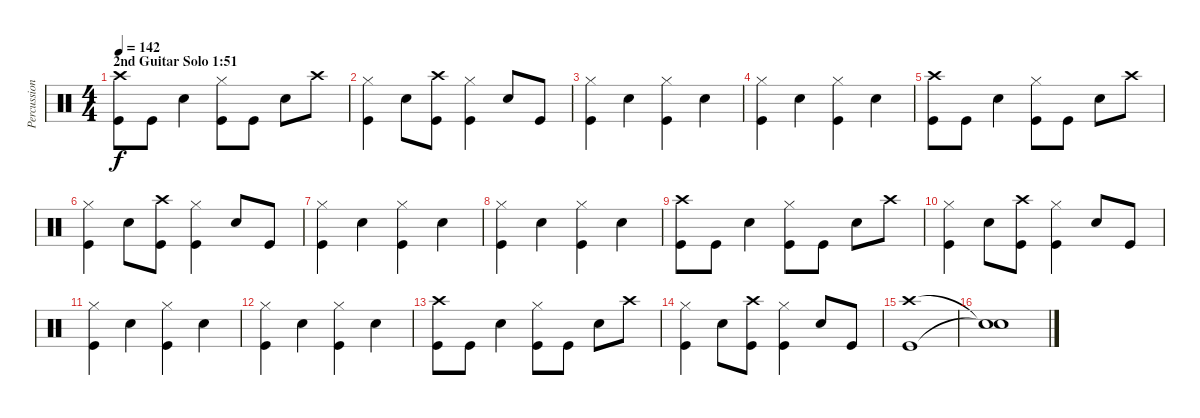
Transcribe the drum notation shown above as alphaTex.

\track ("Percussion" "Percussion") {instrument percussion}
\staff {score}
\articulation defaults
\ts (4 4)
\section ("" "2nd Guitar Solo 1:51")
\tempo 142
\clef neutral
\ks c
("Crash high (hit)" "Kick (hit)").8{dy f} "Kick (hit)".8 "Snare (hit) 2".4 ("Hi-Hat (closed)" "Kick (hit)").8 "Kick (hit)".8 "Snare (hit) 2".8 "Crash high (hit)".8 |
("Hi-Hat (closed)" "Kick (hit)").4 "Snare (hit) 2".8 ("Crash high (hit)" "Kick (hit)").8 ("Hi-Hat (closed)" "Kick (hit)").4 "Snare (hit) 2".8 "Kick (hit)".8 |
("Hi-Hat (closed)" "Kick (hit)").4 "Snare (hit) 2".4 ("Hi-Hat (closed)" "Kick (hit)").4 "Snare (hit) 2".4 |
("Hi-Hat (closed)" "Kick (hit)").4 "Snare (hit) 2".4 ("Hi-Hat (closed)" "Kick (hit)").4 "Snare (hit) 2".4 |
("Crash high (hit)" "Kick (hit)").8 "Kick (hit)".8 "Snare (hit) 2".4 ("Hi-Hat (closed)" "Kick (hit)").8 "Kick (hit)".8 "Snare (hit) 2".8 "Crash high (hit)".8 |
("Hi-Hat (closed)" "Kick (hit)").4 "Snare (hit) 2".8 ("Crash high (hit)" "Kick (hit)").8 ("Hi-Hat (closed)" "Kick (hit)").4 "Snare (hit) 2".8 "Kick (hit)".8 |
("Hi-Hat (closed)" "Kick (hit)").4 "Snare (hit) 2".4 ("Hi-Hat (closed)" "Kick (hit)").4 "Snare (hit) 2".4 |
("Hi-Hat (closed)" "Kick (hit)").4 "Snare (hit) 2".4 ("Hi-Hat (closed)" "Kick (hit)").4 "Snare (hit) 2".4 |
("Crash high (hit)" "Kick (hit)").8 "Kick (hit)".8 "Snare (hit) 2".4 ("Hi-Hat (closed)" "Kick (hit)").8 "Kick (hit)".8 "Snare (hit) 2".8 "Crash high (hit)".8 |
("Hi-Hat (closed)" "Kick (hit)").4 "Snare (hit) 2".8 ("Crash high (hit)" "Kick (hit)").8 ("Hi-Hat (closed)" "Kick (hit)").4 "Snare (hit) 2".8 "Kick (hit)".8 |
("Hi-Hat (closed)" "Kick (hit)").4 "Snare (hit) 2".4 ("Hi-Hat (closed)" "Kick (hit)").4 "Snare (hit) 2".4 |
("Hi-Hat (closed)" "Kick (hit)").4 "Snare (hit) 2".4 ("Hi-Hat (closed)" "Kick (hit)").4 "Snare (hit) 2".4 |
("Crash high (hit)" "Kick (hit)").8 "Kick (hit)".8 "Snare (hit) 2".4 ("Hi-Hat (closed)" "Kick (hit)").8 "Kick (hit)".8 "Snare (hit) 2".8 "Crash high (hit)".8 |
("Hi-Hat (closed)" "Kick (hit)").4 "Snare (hit) 2".8 ("Crash high (hit)" "Kick (hit)").8 ("Hi-Hat (closed)" "Kick (hit)").4 "Snare (hit) 2".8 "Kick (hit)".8 |
("Crash high (hit)" "Kick (hit)").1 |
("Snare (hit)"{t} "Snare (hit)"{t}).1
